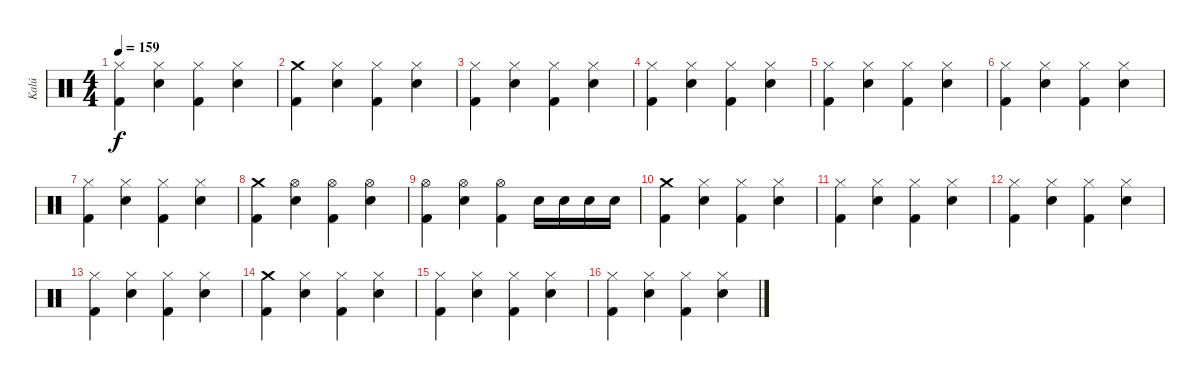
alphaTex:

\track ("Kalú" "Kalú") {instrument percussion}
\staff {score}
\articulation defaults
\ts (4 4)
\tempo 159
\clef neutral
\ks c
("Hi-Hat (closed)" "Kick (hit) 2").4{dy f} ("Hi-Hat (closed)" "Electric Snare (hit)").4 ("Hi-Hat (closed)" "Kick (hit) 2").4 ("Hi-Hat (closed)" "Electric Snare (hit)").4 |
("Crash medium (hit)" "Kick (hit) 2").4 ("Hi-Hat (closed)" "Electric Snare (hit)").4 ("Hi-Hat (closed)" "Kick (hit) 2").4 ("Hi-Hat (closed)" "Electric Snare (hit)").4 |
("Hi-Hat (closed)" "Kick (hit) 2").4 ("Hi-Hat (closed)" "Electric Snare (hit)").4 ("Hi-Hat (closed)" "Kick (hit) 2").4 ("Hi-Hat (closed)" "Electric Snare (hit)").4 |
("Hi-Hat (closed)" "Kick (hit) 2").4 ("Hi-Hat (closed)" "Electric Snare (hit)").4 ("Hi-Hat (closed)" "Kick (hit) 2").4 ("Hi-Hat (closed)" "Electric Snare (hit)").4 |
("Hi-Hat (closed)" "Kick (hit) 2").4 ("Hi-Hat (closed)" "Electric Snare (hit)").4 ("Hi-Hat (closed)" "Kick (hit) 2").4 ("Hi-Hat (closed)" "Electric Snare (hit)").4 |
("Hi-Hat (closed)" "Kick (hit) 2").4 ("Hi-Hat (closed)" "Electric Snare (hit)").4 ("Hi-Hat (closed)" "Kick (hit) 2").4 ("Hi-Hat (closed)" "Electric Snare (hit)").4 |
("Hi-Hat (closed)" "Kick (hit) 2").4 ("Hi-Hat (closed)" "Electric Snare (hit)").4 ("Hi-Hat (closed)" "Kick (hit) 2").4 ("Hi-Hat (closed)" "Electric Snare (hit)").4 |
("Crash medium (hit)" "Kick (hit) 2").4 ("Hi-Hat (open)" "Electric Snare (hit)").4 ("Hi-Hat (open)" "Kick (hit) 2").4 ("Hi-Hat (open)" "Electric Snare (hit)").4 |
("Hi-Hat (open)" "Kick (hit) 2").4 ("Hi-Hat (open)" "Electric Snare (hit)").4 ("Hi-Hat (open)" "Kick (hit) 2").4 "Electric Snare (hit)".16 "Electric Snare (hit)".16 "Electric Snare (hit)".16 "Electric Snare (hit)".16 |
("Crash medium (hit)" "Kick (hit) 2").4 ("Hi-Hat (closed)" "Electric Snare (hit)").4 ("Hi-Hat (closed)" "Kick (hit) 2").4 ("Hi-Hat (closed)" "Electric Snare (hit)").4 |
("Hi-Hat (closed)" "Kick (hit) 2").4 ("Hi-Hat (closed)" "Electric Snare (hit)").4 ("Hi-Hat (closed)" "Kick (hit) 2").4 ("Hi-Hat (closed)" "Electric Snare (hit)").4 |
("Hi-Hat (closed)" "Kick (hit) 2").4 ("Hi-Hat (closed)" "Electric Snare (hit)").4 ("Hi-Hat (closed)" "Kick (hit) 2").4 ("Hi-Hat (closed)" "Electric Snare (hit)").4 |
("Hi-Hat (closed)" "Kick (hit) 2").4 ("Hi-Hat (closed)" "Electric Snare (hit)").4 ("Hi-Hat (closed)" "Kick (hit) 2").4 ("Hi-Hat (closed)" "Electric Snare (hit)").4 |
("Crash medium (hit)" "Kick (hit) 2").4 ("Hi-Hat (closed)" "Electric Snare (hit)").4 ("Hi-Hat (closed)" "Kick (hit) 2").4 ("Hi-Hat (closed)" "Electric Snare (hit)").4 |
("Hi-Hat (closed)" "Kick (hit) 2").4 ("Hi-Hat (closed)" "Electric Snare (hit)").4 ("Hi-Hat (closed)" "Kick (hit) 2").4 ("Hi-Hat (closed)" "Electric Snare (hit)").4 |
("Hi-Hat (closed)" "Kick (hit) 2").4 ("Hi-Hat (closed)" "Electric Snare (hit)").4 ("Hi-Hat (closed)" "Kick (hit) 2").4 ("Hi-Hat (closed)" "Electric Snare (hit)").4
